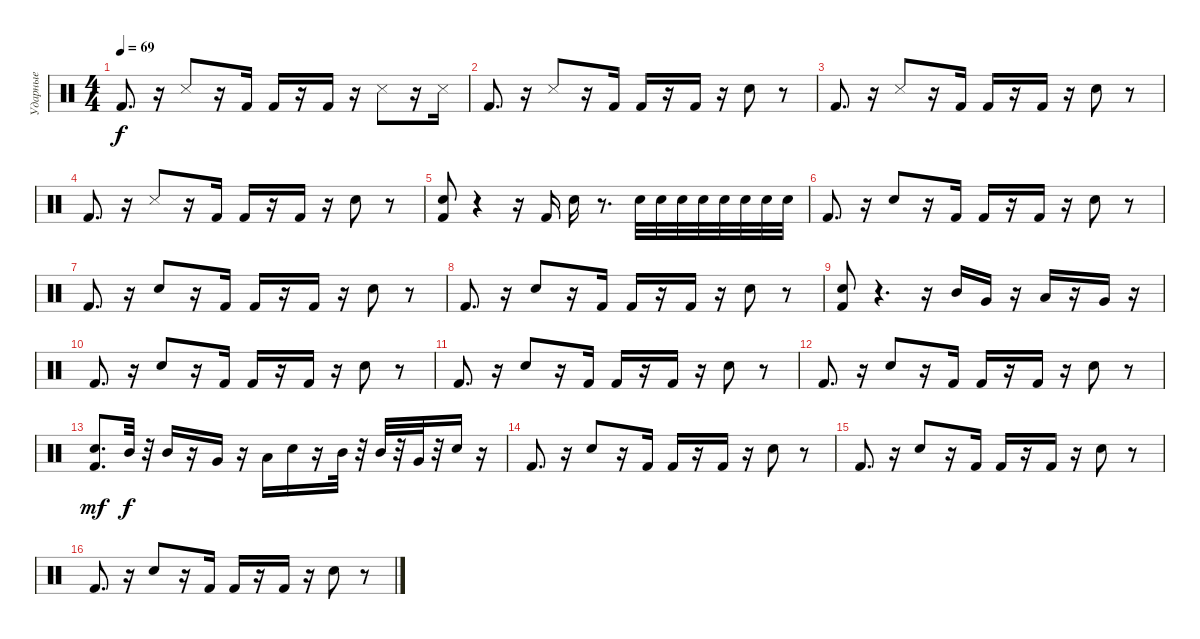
\track ("Ударные" "Ударные") {instrument percussion}
\staff {score}
\articulation defaults
\ts (4 4)
\tempo 69
\clef neutral
\ks c "Kick (hit) 2".8{d dy f}
r.16 "Snare (side stick) 3".8 r.16 "Kick (hit) 2".16 "Kick (hit) 2".16 r.16 "Kick (hit) 2".16 r.16 "Snare (side stick) 3".8 r.16 "Snare (side stick) 3".16 |
"Kick (hit) 2".8{d} r.16 "Snare (side stick) 3".8 r.16 "Kick (hit) 2".16 "Kick (hit) 2".16 r.16 "Kick (hit) 2".16 r.16 "Snare (hit) 2".8 r.8 |
"Kick (hit) 2".8{d} r.16 "Snare (side stick) 3".8 r.16 "Kick (hit) 2".16 "Kick (hit) 2".16 r.16 "Kick (hit) 2".16 r.16 "Snare (hit) 2".8 r.8 |
"Kick (hit) 2".8{d} r.16 "Snare (side stick) 3".8 r.16 "Kick (hit) 2".16 "Kick (hit) 2".16 r.16 "Kick (hit) 2".16 r.16 "Snare (hit) 2".8 r.8 |
("Kick (hit) 2" "Snare (hit) 2").8 r.4 r.16 "Kick (hit) 2".16 "Snare (hit) 2".16 r.8{d} "Snare (hit) 2".32 "Snare (hit) 2".32 "Snare (hit) 2".32 "Snare (hit) 2".32 "Snare (hit) 2".32 "Snare (hit) 2".32 "Snare (hit) 2".32 "Snare (hit) 2".32 |
"Kick (hit) 2".8{d} r.16 "Snare (hit) 2".8 r.16 "Kick (hit) 2".16 "Kick (hit) 2".16 r.16 "Kick (hit) 2".16 r.16 "Snare (hit) 2".8 r.8 |
"Kick (hit) 2".8{d} r.16 "Snare (hit) 2".8 r.16 "Kick (hit) 2".16 "Kick (hit) 2".16 r.16 "Kick (hit) 2".16 r.16 "Snare (hit) 2".8 r.8 |
"Kick (hit) 2".8{d} r.16 "Snare (hit) 2".8 r.16 "Kick (hit) 2".16 "Kick (hit) 2".16 r.16 "Kick (hit) 2".16 r.16 "Snare (hit) 2".8 r.8 |
("Kick (hit) 2" "Snare (hit) 2").8 r.4{d} r.16 "Mid Tom (hit)".16 "Very Low Tom (hit)".16 r.16 "Low Tom (hit)".16 r.16 "Very Low Tom (hit)".16 r.16 |
"Kick (hit) 2".8{d} r.16 "Snare (hit) 2".8 r.16 "Kick (hit) 2".16 "Kick (hit) 2".16 r.16 "Kick (hit) 2".16 r.16 "Snare (hit) 2".8 r.8 |
"Kick (hit) 2".8{d} r.16 "Snare (hit) 2".8 r.16 "Kick (hit) 2".16 "Kick (hit) 2".16 r.16 "Kick (hit) 2".16 r.16 "Snare (hit) 2".8 r.8 |
"Kick (hit) 2".8{d} r.16 "Snare (hit) 2".8 r.16 "Kick (hit) 2".16 "Kick (hit) 2".16 r.16 "Kick (hit) 2".16 r.16 "Snare (hit) 2".8 r.8 |
("Kick (hit) 2" "Snare (hit) 2").8{d dy mf} "Mid Tom (hit)".32{dy f} r.32 "Mid Tom (hit)".16 r.16 "Very Low Tom (hit)".16 r.16 "Low Tom (hit)".16 "Electric Snare (hit)".16 r.16 "Mid Tom (hit)".32 r.32 "Mid Tom (hit)".32 r.32 "Very Low Tom (hit)".32 r.32 "Snare (hit) 2".16 r.16 |
"Kick (hit) 2".8{d} r.16 "Snare (hit) 2".8 r.16 "Kick (hit) 2".16 "Kick (hit) 2".16 r.16 "Kick (hit) 2".16 r.16 "Snare (hit) 2".8 r.8 |
"Kick (hit) 2".8{d} r.16 "Snare (hit) 2".8 r.16 "Kick (hit) 2".16 "Kick (hit) 2".16 r.16 "Kick (hit) 2".16 r.16 "Snare (hit) 2".8 r.8 |
"Kick (hit) 2".8{d} r.16 "Snare (hit) 2".8 r.16 "Kick (hit) 2".16 "Kick (hit) 2".16 r.16 "Kick (hit) 2".16 r.16 "Snare (hit) 2".8 r.8
